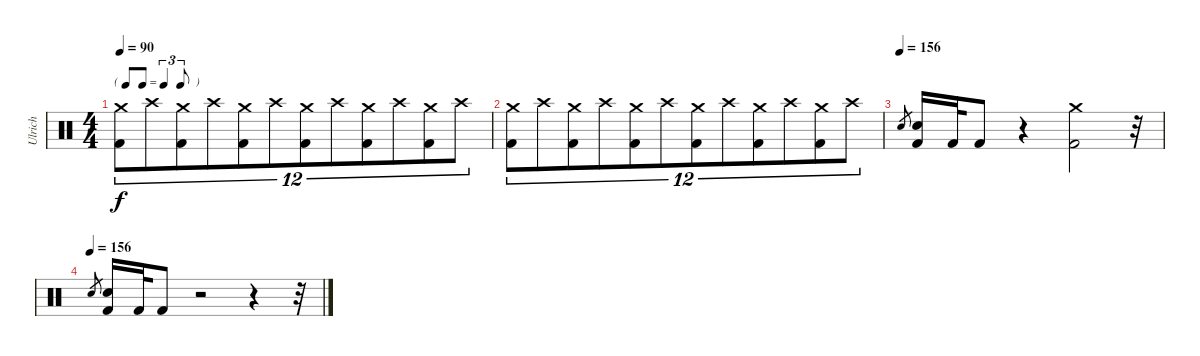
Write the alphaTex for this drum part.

\track ("Ulrich" "Ulrich") {instrument percussion}
\staff {score}
\articulation defaults
\ts (4 4)
\tf triplet8th
\tempo 90
\clef neutral
\ks c
("Crash medium (hit)" "Kick (hit) 2").8{tu (12 8) dy f} "Crash high (hit)".8{tu (12 8)} ("Crash medium (hit)" "Kick (hit) 2").8{tu (12 8)} "Crash high (hit)".8{tu (12 8)} ("Crash medium (hit)" "Kick (hit) 2").8{tu (12 8)} "Crash high (hit)".8{tu (12 8)} ("Crash medium (hit)" "Kick (hit) 2").8{tu (12 8)} "Crash high (hit)".8{tu (12 8)} ("Crash medium (hit)" "Kick (hit) 2").8{tu (12 8)} "Crash high (hit)".8{tu (12 8)} ("Crash medium (hit)" "Kick (hit) 2").8{tu (12 8)} "Crash high (hit)".8{tu (12 8)} |
("Crash medium (hit)" "Kick (hit) 2").8{tu (12 8)} "Crash high (hit)".8{tu (12 8)} ("Crash medium (hit)" "Kick (hit) 2").8{tu (12 8)} "Crash high (hit)".8{tu (12 8)} ("Crash medium (hit)" "Kick (hit) 2").8{tu (12 8)} "Crash high (hit)".8{tu (12 8)} ("Crash medium (hit)" "Kick (hit) 2").8{tu (12 8)} "Crash high (hit)".8{tu (12 8)} ("Crash medium (hit)" "Kick (hit) 2").8{tu (12 8)} "Crash high (hit)".8{tu (12 8)} ("Crash medium (hit)" "Kick (hit) 2").8{tu (12 8)} "Crash high (hit)".8{tu (12 8)} |
\tempo (156)
"Electric Snare (hit)".8{gr} ("Electric Snare (hit)" "Kick (hit) 2").16 "Kick (hit) 2".32 "Kick (hit) 2".8 r.4 ("Crash medium (hit)" "Kick (hit) 2").2 r.32 |
\tempo (156)
"Electric Snare (hit)".8{gr} ("Electric Snare (hit)" "Kick (hit) 2").16 "Kick (hit) 2".32 "Kick (hit) 2".8 r.2 r.4 r.32
